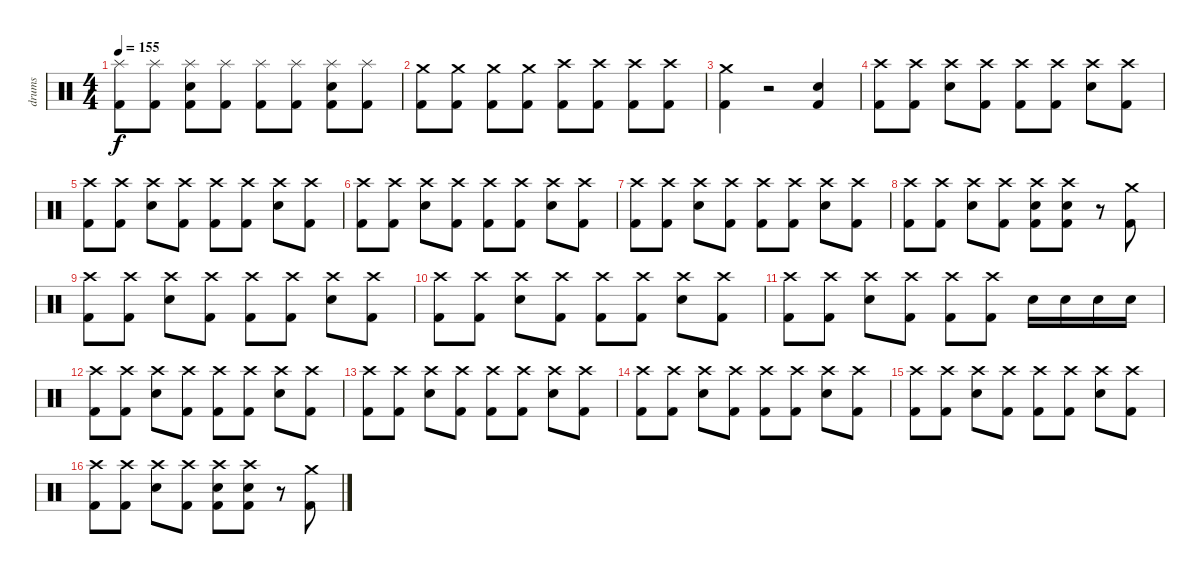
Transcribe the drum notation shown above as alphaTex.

\track ("drums" "drums") {instrument percussion}
\staff {score}
\articulation defaults
\ts (4 4)
\tempo 155
\clef neutral
\ks c
("Splash (hit)" "Kick (hit) 2").8{dy f} ("Splash (hit)" "Kick (hit) 2").8 ("Splash (hit)" "Snare (hit) 2" "Kick (hit) 2").8 ("Splash (hit)" "Kick (hit) 2").8 ("Splash (hit)" "Kick (hit) 2").8 ("Splash (hit)" "Kick (hit) 2").8 ("Splash (hit)" "Snare (hit) 2" "Kick (hit) 2").8 ("Splash (hit)" "Kick (hit) 2").8 |
("Crash medium (hit)" "Kick (hit) 2").8 ("Crash medium (hit)" "Kick (hit) 2").8 ("Crash medium (hit)" "Kick (hit) 2").8 ("Crash medium (hit)" "Kick (hit) 2").8 ("Crash high (hit)" "Kick (hit) 2").8 ("Crash high (hit)" "Kick (hit) 2").8 ("Crash high (hit)" "Kick (hit) 2").8 ("Crash high (hit)" "Kick (hit) 2").8 |
("Crash medium (hit)" "Kick (hit) 2").4 r.2 ("Snare (hit) 2" "Kick (hit) 2").4 |
("Crash high (hit)" "Kick (hit) 2").8 ("Crash high (hit)" "Kick (hit) 2").8 ("Crash high (hit)" "Snare (hit) 2").8 ("Crash high (hit)" "Kick (hit) 2").8 ("Crash high (hit)" "Kick (hit) 2").8 ("Crash high (hit)" "Kick (hit) 2").8 ("Crash high (hit)" "Snare (hit) 2").8 ("Crash high (hit)" "Kick (hit) 2").8 |
("Crash high (hit)" "Kick (hit) 2").8 ("Crash high (hit)" "Kick (hit) 2").8 ("Crash high (hit)" "Snare (hit) 2").8 ("Crash high (hit)" "Kick (hit) 2").8 ("Crash high (hit)" "Kick (hit) 2").8 ("Crash high (hit)" "Kick (hit) 2").8 ("Crash high (hit)" "Snare (hit) 2").8 ("Crash high (hit)" "Kick (hit) 2").8 |
("Crash high (hit)" "Kick (hit) 2").8 ("Crash high (hit)" "Kick (hit) 2").8 ("Crash high (hit)" "Snare (hit) 2").8 ("Crash high (hit)" "Kick (hit) 2").8 ("Crash high (hit)" "Kick (hit) 2").8 ("Crash high (hit)" "Kick (hit) 2").8 ("Crash high (hit)" "Snare (hit) 2").8 ("Crash high (hit)" "Kick (hit) 2").8 |
("Crash high (hit)" "Kick (hit) 2").8 ("Crash high (hit)" "Kick (hit) 2").8 ("Crash high (hit)" "Snare (hit) 2").8 ("Crash high (hit)" "Kick (hit) 2").8 ("Crash high (hit)" "Kick (hit) 2").8 ("Crash high (hit)" "Kick (hit) 2").8 ("Crash high (hit)" "Snare (hit) 2").8 ("Crash high (hit)" "Kick (hit) 2").8 |
("Crash high (hit)" "Kick (hit) 2").8 ("Crash high (hit)" "Kick (hit) 2").8 ("Crash high (hit)" "Snare (hit) 2").8 ("Crash high (hit)" "Kick (hit) 2").8 ("Crash high (hit)" "Snare (hit) 2" "Kick (hit) 2").8 ("Crash high (hit)" "Snare (hit) 2" "Kick (hit) 2").8 r.8 ("Crash medium (hit)" "Kick (hit) 2").8 |
("Crash high (hit)" "Kick (hit) 2").8 ("Crash high (hit)" "Kick (hit) 2").8 ("Crash high (hit)" "Snare (hit) 2").8 ("Crash high (hit)" "Kick (hit) 2").8 ("Crash high (hit)" "Kick (hit) 2").8 ("Crash high (hit)" "Kick (hit) 2").8 ("Crash high (hit)" "Snare (hit) 2").8 ("Crash high (hit)" "Kick (hit) 2").8 |
("Crash high (hit)" "Kick (hit) 2").8 ("Crash high (hit)" "Kick (hit) 2").8 ("Crash high (hit)" "Snare (hit) 2").8 ("Crash high (hit)" "Kick (hit) 2").8 ("Crash high (hit)" "Kick (hit) 2").8 ("Crash high (hit)" "Kick (hit) 2").8 ("Crash high (hit)" "Snare (hit) 2").8 ("Crash high (hit)" "Kick (hit) 2").8 |
("Crash high (hit)" "Kick (hit) 2").8 ("Crash high (hit)" "Kick (hit) 2").8 ("Crash high (hit)" "Snare (hit) 2").8 ("Crash high (hit)" "Kick (hit) 2").8 ("Crash high (hit)" "Kick (hit) 2").8 ("Crash high (hit)" "Kick (hit) 2").8 "Snare (hit) 2".16 "Snare (hit) 2".16 "Snare (hit) 2".16 "Snare (hit) 2".16 |
("Crash high (hit)" "Kick (hit) 2").8 ("Crash high (hit)" "Kick (hit) 2").8 ("Crash high (hit)" "Snare (hit) 2").8 ("Crash high (hit)" "Kick (hit) 2").8 ("Crash high (hit)" "Kick (hit) 2").8 ("Crash high (hit)" "Kick (hit) 2").8 ("Crash high (hit)" "Snare (hit) 2").8 ("Crash high (hit)" "Kick (hit) 2").8 |
("Crash high (hit)" "Kick (hit) 2").8 ("Crash high (hit)" "Kick (hit) 2").8 ("Crash high (hit)" "Snare (hit) 2").8 ("Crash high (hit)" "Kick (hit) 2").8 ("Crash high (hit)" "Kick (hit) 2").8 ("Crash high (hit)" "Kick (hit) 2").8 ("Crash high (hit)" "Snare (hit) 2").8 ("Crash high (hit)" "Kick (hit) 2").8 |
("Crash high (hit)" "Kick (hit) 2").8 ("Crash high (hit)" "Kick (hit) 2").8 ("Crash high (hit)" "Snare (hit) 2").8 ("Crash high (hit)" "Kick (hit) 2").8 ("Crash high (hit)" "Kick (hit) 2").8 ("Crash high (hit)" "Kick (hit) 2").8 ("Crash high (hit)" "Snare (hit) 2").8 ("Crash high (hit)" "Kick (hit) 2").8 |
("Crash high (hit)" "Kick (hit) 2").8 ("Crash high (hit)" "Kick (hit) 2").8 ("Crash high (hit)" "Snare (hit) 2").8 ("Crash high (hit)" "Kick (hit) 2").8 ("Crash high (hit)" "Kick (hit) 2").8 ("Crash high (hit)" "Kick (hit) 2").8 ("Crash high (hit)" "Snare (hit) 2").8 ("Crash high (hit)" "Kick (hit) 2").8 |
("Crash high (hit)" "Kick (hit) 2").8 ("Crash high (hit)" "Kick (hit) 2").8 ("Crash high (hit)" "Snare (hit) 2").8 ("Crash high (hit)" "Kick (hit) 2").8 ("Crash high (hit)" "Snare (hit) 2" "Kick (hit) 2").8 ("Crash high (hit)" "Snare (hit) 2" "Kick (hit) 2").8 r.8 ("Crash medium (hit)" "Kick (hit) 2").8
